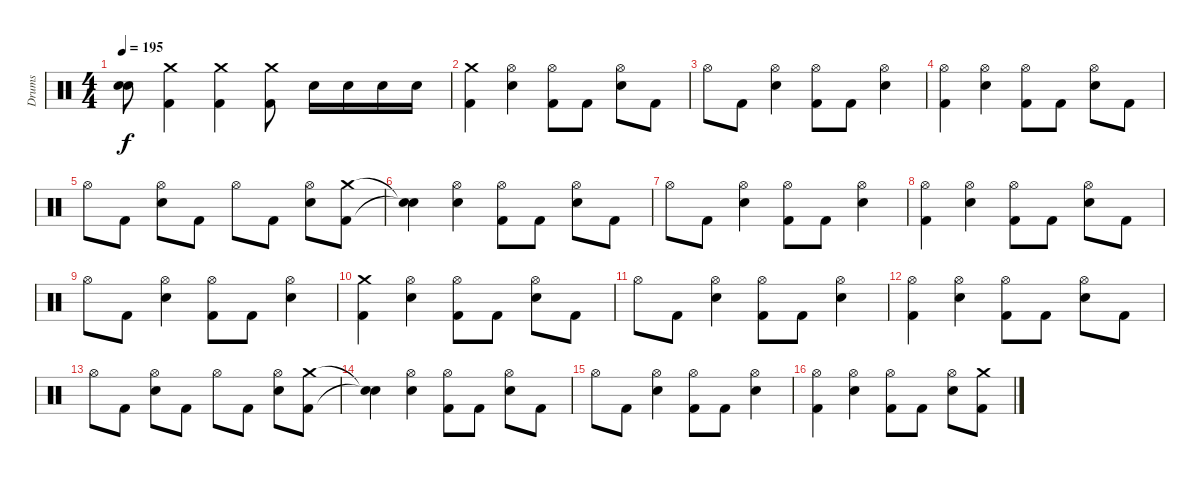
\track ("Drums" "Drums") {instrument percussion}
\staff {score}
\articulation defaults
\ts (4 4)
\tempo 195
\clef neutral
\ks c
("Snare (hit)"{t} "Snare (hit)"{t}).8{dy f} ("Crash medium (hit)" "Kick (hit) 2").4 ("Crash medium (hit)" "Kick (hit) 2").4 ("Crash medium (hit)" "Kick (hit) 2").8 "Electric Snare (hit)".16 "Electric Snare (hit)".16 "Electric Snare (hit)".16 "Electric Snare (hit)".16 |
\section ("" "")
("Crash medium (hit)" "Kick (hit) 2").4 ("Hi-Hat (open)" "Electric Snare (hit)").4 ("Hi-Hat (open)" "Kick (hit) 2").8 "Kick (hit) 2".8 ("Hi-Hat (open)" "Electric Snare (hit)").8 "Kick (hit) 2".8 |
"Hi-Hat (open)".8 "Kick (hit) 2".8 ("Hi-Hat (open)" "Electric Snare (hit)").4 ("Hi-Hat (open)" "Kick (hit) 2").8 "Kick (hit) 2".8 ("Hi-Hat (open)" "Electric Snare (hit)").4 |
("Hi-Hat (open)" "Kick (hit) 2").4 ("Hi-Hat (open)" "Electric Snare (hit)").4 ("Hi-Hat (open)" "Kick (hit) 2").8 "Kick (hit) 2".8 ("Hi-Hat (open)" "Electric Snare (hit)").8 "Kick (hit) 2".8 |
"Hi-Hat (open)".8 "Kick (hit) 2".8 ("Hi-Hat (open)" "Electric Snare (hit)").8 "Kick (hit) 2".8 "Hi-Hat (open)".8 "Kick (hit) 2".8 ("Hi-Hat (open)" "Electric Snare (hit)").8 ("Crash medium (hit)" "Kick (hit) 2").8 |
("Snare (hit)"{t} "Snare (hit)"{t}).4 ("Hi-Hat (open)" "Electric Snare (hit)").4 ("Hi-Hat (open)" "Kick (hit) 2").8 "Kick (hit) 2".8 ("Hi-Hat (open)" "Electric Snare (hit)").8 "Kick (hit) 2".8 |
"Hi-Hat (open)".8 "Kick (hit) 2".8 ("Hi-Hat (open)" "Electric Snare (hit)").4 ("Hi-Hat (open)" "Kick (hit) 2").8 "Kick (hit) 2".8 ("Hi-Hat (open)" "Electric Snare (hit)").4 |
("Hi-Hat (open)" "Kick (hit) 2").4 ("Hi-Hat (open)" "Electric Snare (hit)").4 ("Hi-Hat (open)" "Kick (hit) 2").8 "Kick (hit) 2".8 ("Hi-Hat (open)" "Electric Snare (hit)").8 "Kick (hit) 2".8 |
"Hi-Hat (open)".8 "Kick (hit) 2".8 ("Hi-Hat (open)" "Electric Snare (hit)").4 ("Hi-Hat (open)" "Kick (hit) 2").8 "Kick (hit) 2".8 ("Hi-Hat (open)" "Electric Snare (hit)").4 |
\section ("" "")
("Crash medium (hit)" "Kick (hit) 2").4 ("Hi-Hat (open)" "Electric Snare (hit)").4 ("Hi-Hat (open)" "Kick (hit) 2").8 "Kick (hit) 2".8 ("Hi-Hat (open)" "Electric Snare (hit)").8 "Kick (hit) 2".8 |
"Hi-Hat (open)".8 "Kick (hit) 2".8 ("Hi-Hat (open)" "Electric Snare (hit)").4 ("Hi-Hat (open)" "Kick (hit) 2").8 "Kick (hit) 2".8 ("Hi-Hat (open)" "Electric Snare (hit)").4 |
("Hi-Hat (open)" "Kick (hit) 2").4 ("Hi-Hat (open)" "Electric Snare (hit)").4 ("Hi-Hat (open)" "Kick (hit) 2").8 "Kick (hit) 2".8 ("Hi-Hat (open)" "Electric Snare (hit)").8 "Kick (hit) 2".8 |
"Hi-Hat (open)".8 "Kick (hit) 2".8 ("Hi-Hat (open)" "Electric Snare (hit)").8 "Kick (hit) 2".8 "Hi-Hat (open)".8 "Kick (hit) 2".8 ("Hi-Hat (open)" "Electric Snare (hit)").8 ("Crash medium (hit)" "Kick (hit) 2").8 |
("Snare (hit)"{t} "Snare (hit)"{t}).4 ("Hi-Hat (open)" "Electric Snare (hit)").4 ("Hi-Hat (open)" "Kick (hit) 2").8 "Kick (hit) 2".8 ("Hi-Hat (open)" "Electric Snare (hit)").8 "Kick (hit) 2".8 |
"Hi-Hat (open)".8 "Kick (hit) 2".8 ("Hi-Hat (open)" "Electric Snare (hit)").4 ("Hi-Hat (open)" "Kick (hit) 2").8 "Kick (hit) 2".8 ("Hi-Hat (open)" "Electric Snare (hit)").4 |
("Hi-Hat (open)" "Kick (hit) 2").4 ("Hi-Hat (open)" "Electric Snare (hit)").4 ("Hi-Hat (open)" "Kick (hit) 2").8 "Kick (hit) 2".8 ("Hi-Hat (open)" "Electric Snare (hit)").8 ("Crash medium (hit)" "Kick (hit) 2").8
